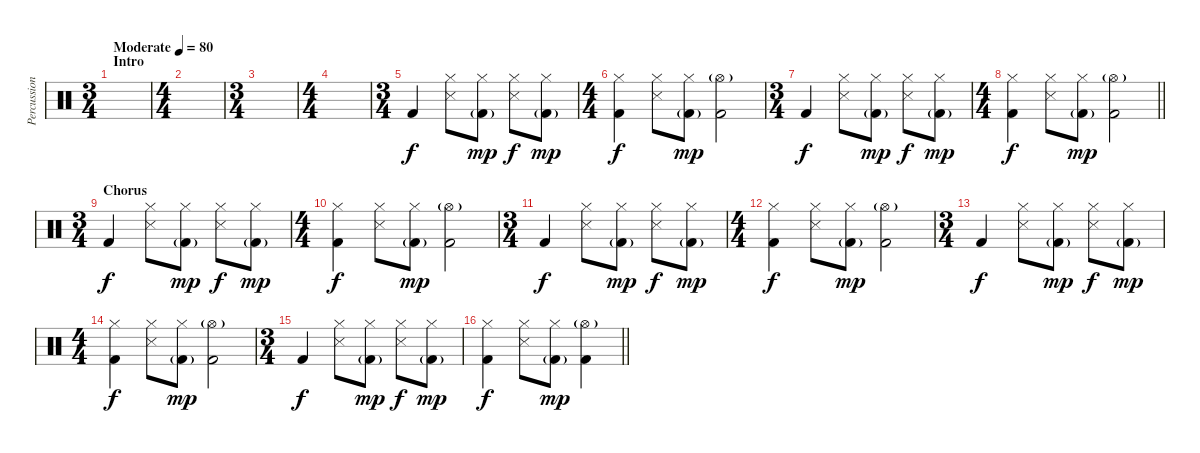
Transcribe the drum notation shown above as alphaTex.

\track ("Percussion" "Percussion") {instrument percussion}
\staff {score}
\articulation defaults
\ts (3 4)
\section ("" "Intro")
\tempo (80 "Moderate")
\clef neutral
\ks c
|
\ts (4 4)
|
\ts (3 4)
|
\ts (4 4)
|
\ts (3 4)
"Kick (hit) 2".4 ("Hi-Hat (closed)" "Snare (side stick) 3").8 ("Hi-Hat (closed)" "Kick (hit) 2"{g}).8{dy mp} ("Hi-Hat (closed)" "Snare (side stick) 3").8{dy f} ("Hi-Hat (closed)" "Kick (hit) 2"{g}).8{dy mp} |
\ts (4 4)
("Hi-Hat (closed)" "Kick (hit) 2").4{dy f} ("Hi-Hat (closed)" "Snare (side stick) 3").8 ("Hi-Hat (closed)" "Kick (hit) 2"{g}).8{dy mp} ("Hi-Hat (open)"{g} "Kick (hit) 2").2 |
\ts (3 4)
"Kick (hit) 2".4{dy f} ("Hi-Hat (closed)" "Snare (side stick) 3").8 ("Hi-Hat (closed)" "Kick (hit) 2"{g}).8{dy mp} ("Hi-Hat (closed)" "Snare (side stick) 3").8{dy f} ("Hi-Hat (closed)" "Kick (hit) 2"{g}).8{dy mp} |
\ts (4 4)
\barLineRight lightlight
("Hi-Hat (closed)" "Kick (hit) 2").4{dy f} ("Hi-Hat (closed)" "Snare (side stick) 3").8 ("Hi-Hat (closed)" "Kick (hit) 2"{g}).8{dy mp} ("Hi-Hat (open)"{g} "Kick (hit) 2").2 |
\ts (3 4)
\section ("" "Chorus")
"Kick (hit) 2".4{dy f} ("Hi-Hat (closed)" "Snare (side stick) 3").8 ("Hi-Hat (closed)" "Kick (hit) 2"{g}).8{dy mp} ("Hi-Hat (closed)" "Snare (side stick) 3").8{dy f} ("Hi-Hat (closed)" "Kick (hit) 2"{g}).8{dy mp} |
\ts (4 4)
("Hi-Hat (closed)" "Kick (hit) 2").4{dy f} ("Hi-Hat (closed)" "Snare (side stick) 3").8 ("Hi-Hat (closed)" "Kick (hit) 2"{g}).8{dy mp} ("Hi-Hat (open)"{g} "Kick (hit) 2").2 |
\ts (3 4)
"Kick (hit) 2".4{dy f} ("Hi-Hat (closed)" "Snare (side stick) 3").8 ("Hi-Hat (closed)" "Kick (hit) 2"{g}).8{dy mp} ("Hi-Hat (closed)" "Snare (side stick) 3").8{dy f} ("Hi-Hat (closed)" "Kick (hit) 2"{g}).8{dy mp} |
\ts (4 4)
("Hi-Hat (closed)" "Kick (hit) 2").4{dy f} ("Hi-Hat (closed)" "Snare (side stick) 3").8 ("Hi-Hat (closed)" "Kick (hit) 2"{g}).8{dy mp} ("Hi-Hat (open)"{g} "Kick (hit) 2").2 |
\ts (3 4)
"Kick (hit) 2".4{dy f} ("Hi-Hat (closed)" "Snare (side stick) 3").8 ("Hi-Hat (closed)" "Kick (hit) 2"{g}).8{dy mp} ("Hi-Hat (closed)" "Snare (side stick) 3").8{dy f} ("Hi-Hat (closed)" "Kick (hit) 2"{g}).8{dy mp} |
\ts (4 4)
("Hi-Hat (closed)" "Kick (hit) 2").4{dy f} ("Hi-Hat (closed)" "Snare (side stick) 3").8 ("Hi-Hat (closed)" "Kick (hit) 2"{g}).8{dy mp} ("Hi-Hat (open)"{g} "Kick (hit) 2").2 |
\ts (3 4)
"Kick (hit) 2".4{dy f} ("Hi-Hat (closed)" "Snare (side stick) 3").8 ("Hi-Hat (closed)" "Kick (hit) 2"{g}).8{dy mp} ("Hi-Hat (closed)" "Snare (side stick) 3").8{dy f} ("Hi-Hat (closed)" "Kick (hit) 2"{g}).8{dy mp} |
\barLineRight lightlight
("Hi-Hat (closed)" "Kick (hit) 2").4{dy f} ("Hi-Hat (closed)" "Snare (side stick) 3").8 ("Hi-Hat (closed)" "Kick (hit) 2"{g}).8{dy mp} ("Hi-Hat (open)"{g} "Kick (hit) 2").4
